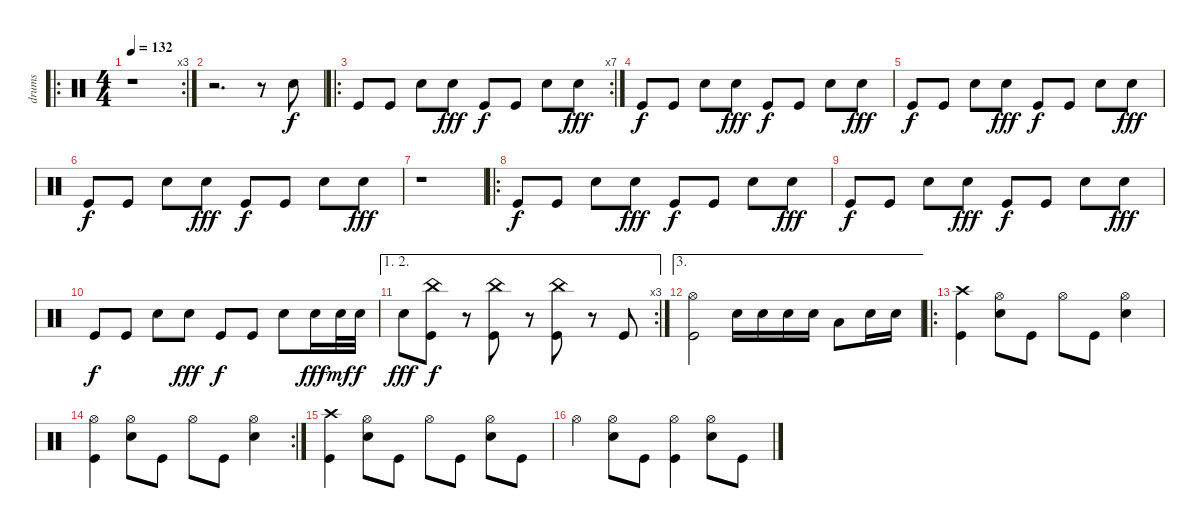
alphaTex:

\track ("drums" "drums") {instrument percussion}
\staff {score}
\articulation defaults
\ro
\rc 3
\ts (4 4)
\tempo 132
\clef neutral
\ks c
r.1{dy f} |
r.2{d} r.8 "Electric Snare (hit)".8 |
\ro
\rc 7 "Kick (hit)".8 "Kick (hit)".8 "Electric Snare (hit)".8 "Electric Snare (hit)".8{dy fff} "Kick (hit)".8{dy f} "Kick (hit)".8 "Electric Snare (hit)".8 "Electric Snare (hit)".8{dy fff}
|
"Kick (hit)".8{dy f} "Kick (hit)".8 "Electric Snare (hit)".8 "Electric Snare (hit)".8{dy fff} "Kick (hit)".8{dy f} "Kick (hit)".8 "Electric Snare (hit)".8 "Electric Snare (hit)".8{dy fff} |
"Kick (hit)".8{dy f} "Kick (hit)".8 "Electric Snare (hit)".8 "Electric Snare (hit)".8{dy fff} "Kick (hit)".8{dy f} "Kick (hit)".8 "Electric Snare (hit)".8 "Electric Snare (hit)".8{dy fff} |
"Kick (hit)".8{dy f} "Kick (hit)".8 "Electric Snare (hit)".8 "Electric Snare (hit)".8{dy fff} "Kick (hit)".8{dy f} "Kick (hit)".8 "Electric Snare (hit)".8 "Electric Snare (hit)".8{dy fff} |
r.1 |
\ro "Kick (hit)".8{dy f} "Kick (hit)".8 "Electric Snare (hit)".8 "Electric Snare (hit)".8{dy fff} "Kick (hit)".8{dy f} "Kick (hit)".8 "Electric Snare (hit)".8 "Electric Snare (hit)".8{dy fff}
|
"Kick (hit)".8{dy f} "Kick (hit)".8 "Electric Snare (hit)".8 "Electric Snare (hit)".8{dy fff} "Kick (hit)".8{dy f} "Kick (hit)".8 "Electric Snare (hit)".8 "Electric Snare (hit)".8{dy fff} |
"Kick (hit)".8{dy f} "Kick (hit)".8 "Electric Snare (hit)".8 "Electric Snare (hit)".8{dy fff} "Kick (hit)".8{dy f} "Kick (hit)".8 "Electric Snare (hit)".8 "Electric Snare (hit)".16{dy fff} "Electric Snare (hit)".32{dy mf} "Electric Snare (hit)".32{dy f} |
\ae (1 2)
\rc 3 "Electric Snare (hit)".8{dy fff}
("China (hit)" "Kick (hit)").8{dy f} r.8 ("China (hit)" "Kick (hit)").8 r.8 ("China (hit)" "Kick (hit)").8 r.8 "Kick (hit)".8 |
\ae 3
("Hi-Hat (open)" "Kick (hit)").2 "Electric Snare (hit)".16 "Electric Snare (hit)".16 "Electric Snare (hit)".16 "Electric Snare (hit)".16 "Low Tom (hit)".8 "Electric Snare (hit)".16 "Electric Snare (hit)".16 |
\ro
("Crash high (hit)" "Kick (hit)").4 ("Hi-Hat (open)" "Electric Snare (hit)").8 "Kick (hit)".8 "Hi-Hat (open)".8 "Kick (hit)".8 ("Hi-Hat (open)" "Electric Snare (hit)").4 |
\rc 2
("Hi-Hat (open)" "Kick (hit)").4 ("Hi-Hat (open)" "Electric Snare (hit)").8 "Kick (hit)".8 "Hi-Hat (open)".8 "Kick (hit)".8 ("Hi-Hat (open)" "Electric Snare (hit)").4 |
("Crash high (hit)" "Kick (hit)").4 ("Hi-Hat (open)" "Electric Snare (hit)").8 "Kick (hit)".8 "Hi-Hat (open)".8 "Kick (hit)".8 ("Hi-Hat (open)" "Electric Snare (hit)").8 "Kick (hit)".8 |
"Hi-Hat (open)".4 ("Hi-Hat (open)" "Electric Snare (hit)").8 "Kick (hit)".8 ("Hi-Hat (open)" "Kick (hit)").4 ("Hi-Hat (open)" "Electric Snare (hit)").8 "Kick (hit)".8
